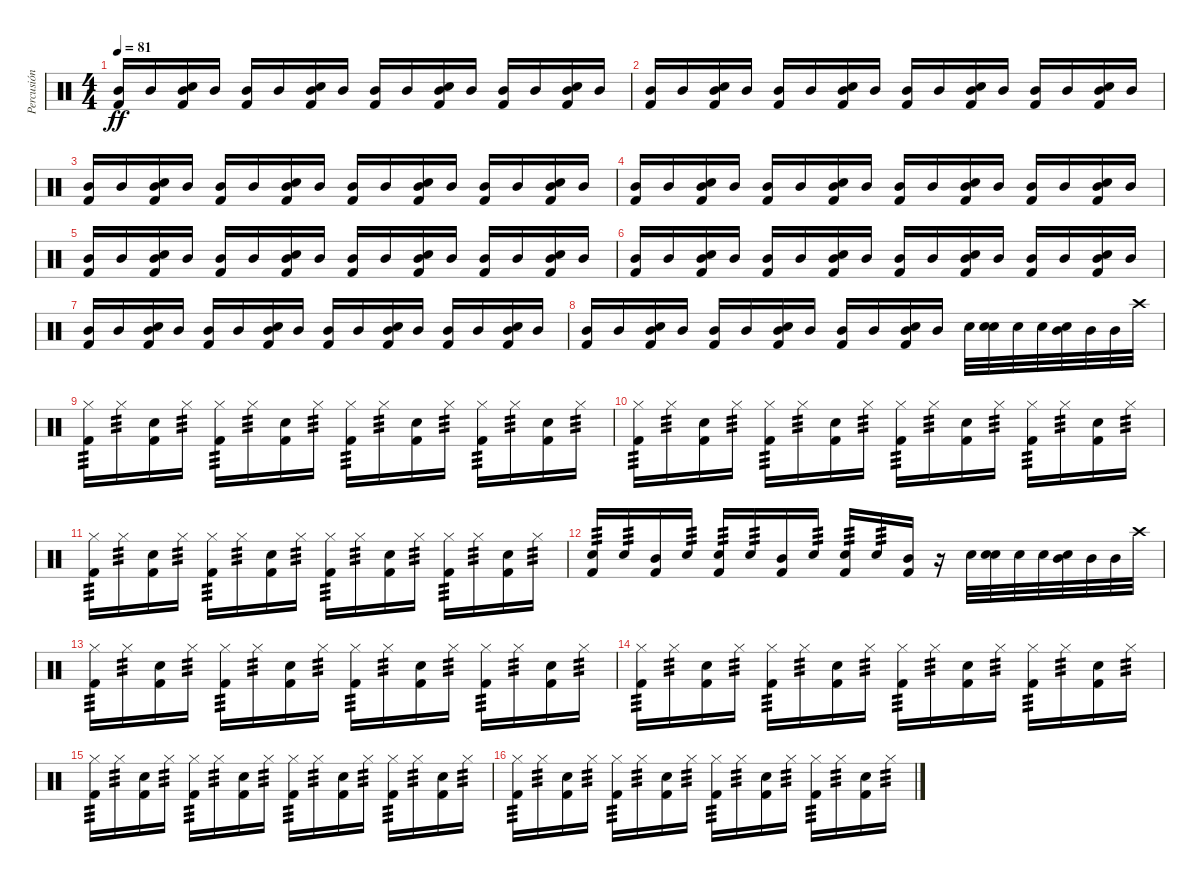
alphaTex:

\track ("Percusión" "Percusión") {instrument percussion}
\staff {score}
\articulation defaults
\ts (4 4)
\tempo 81
\clef neutral
\ks c
("Kick (hit) 2" "Mid Tom (hit)").16{dy ff} "Mid Tom (hit)".16 ("Kick (hit) 2" "Electric Snare (hit)" "Mid Tom (hit)").16 "Mid Tom (hit)".16 ("Kick (hit) 2" "Mid Tom (hit)").16 "Mid Tom (hit)".16 ("Kick (hit) 2" "Electric Snare (hit)" "Mid Tom (hit)").16 "Mid Tom (hit)".16 ("Kick (hit) 2" "Mid Tom (hit)").16 "Mid Tom (hit)".16 ("Kick (hit) 2" "Electric Snare (hit)" "Mid Tom (hit)").16 "Mid Tom (hit)".16 ("Kick (hit) 2" "Mid Tom (hit)").16 "Mid Tom (hit)".16 ("Kick (hit) 2" "Electric Snare (hit)" "Mid Tom (hit)").16 "Mid Tom (hit)".16 |
("Kick (hit) 2" "Mid Tom (hit)").16 "Mid Tom (hit)".16 ("Kick (hit) 2" "Electric Snare (hit)" "Mid Tom (hit)").16 "Mid Tom (hit)".16 ("Kick (hit) 2" "Mid Tom (hit)").16 "Mid Tom (hit)".16 ("Kick (hit) 2" "Electric Snare (hit)" "Mid Tom (hit)").16 "Mid Tom (hit)".16 ("Kick (hit) 2" "Mid Tom (hit)").16 "Mid Tom (hit)".16 ("Kick (hit) 2" "Electric Snare (hit)" "Mid Tom (hit)").16 "Mid Tom (hit)".16 ("Kick (hit) 2" "Mid Tom (hit)").16 "Mid Tom (hit)".16 ("Kick (hit) 2" "Electric Snare (hit)" "Mid Tom (hit)").16 "Mid Tom (hit)".16 |
("Kick (hit) 2" "Mid Tom (hit)").16 "Mid Tom (hit)".16 ("Kick (hit) 2" "Electric Snare (hit)" "Mid Tom (hit)").16 "Mid Tom (hit)".16 ("Kick (hit) 2" "Mid Tom (hit)").16 "Mid Tom (hit)".16 ("Kick (hit) 2" "Electric Snare (hit)" "Mid Tom (hit)").16 "Mid Tom (hit)".16 ("Kick (hit) 2" "Mid Tom (hit)").16 "Mid Tom (hit)".16 ("Kick (hit) 2" "Electric Snare (hit)" "Mid Tom (hit)").16 "Mid Tom (hit)".16 ("Kick (hit) 2" "Mid Tom (hit)").16 "Mid Tom (hit)".16 ("Kick (hit) 2" "Electric Snare (hit)" "Mid Tom (hit)").16 "Mid Tom (hit)".16 |
("Kick (hit) 2" "Mid Tom (hit)").16 "Mid Tom (hit)".16 ("Kick (hit) 2" "Electric Snare (hit)" "Mid Tom (hit)").16 "Mid Tom (hit)".16 ("Kick (hit) 2" "Mid Tom (hit)").16 "Mid Tom (hit)".16 ("Kick (hit) 2" "Electric Snare (hit)" "Mid Tom (hit)").16 "Mid Tom (hit)".16 ("Kick (hit) 2" "Mid Tom (hit)").16 "Mid Tom (hit)".16 ("Kick (hit) 2" "Electric Snare (hit)" "Mid Tom (hit)").16 "Mid Tom (hit)".16 ("Kick (hit) 2" "Mid Tom (hit)").16 "Mid Tom (hit)".16 ("Kick (hit) 2" "Electric Snare (hit)" "Mid Tom (hit)").16 "Mid Tom (hit)".16 |
("Kick (hit) 2" "Mid Tom (hit)").16 "Mid Tom (hit)".16 ("Kick (hit) 2" "Electric Snare (hit)" "Mid Tom (hit)").16 "Mid Tom (hit)".16 ("Kick (hit) 2" "Mid Tom (hit)").16 "Mid Tom (hit)".16 ("Kick (hit) 2" "Electric Snare (hit)" "Mid Tom (hit)").16 "Mid Tom (hit)".16 ("Kick (hit) 2" "Mid Tom (hit)").16 "Mid Tom (hit)".16 ("Kick (hit) 2" "Electric Snare (hit)" "Mid Tom (hit)").16 "Mid Tom (hit)".16 ("Kick (hit) 2" "Mid Tom (hit)").16 "Mid Tom (hit)".16 ("Kick (hit) 2" "Electric Snare (hit)" "Mid Tom (hit)").16 "Mid Tom (hit)".16 |
("Kick (hit) 2" "Mid Tom (hit)").16 "Mid Tom (hit)".16 ("Kick (hit) 2" "Electric Snare (hit)" "Mid Tom (hit)").16 "Mid Tom (hit)".16 ("Kick (hit) 2" "Mid Tom (hit)").16 "Mid Tom (hit)".16 ("Kick (hit) 2" "Electric Snare (hit)" "Mid Tom (hit)").16 "Mid Tom (hit)".16 ("Kick (hit) 2" "Mid Tom (hit)").16 "Mid Tom (hit)".16 ("Kick (hit) 2" "Electric Snare (hit)" "Mid Tom (hit)").16 "Mid Tom (hit)".16 ("Kick (hit) 2" "Mid Tom (hit)").16 "Mid Tom (hit)".16 ("Kick (hit) 2" "Electric Snare (hit)" "Mid Tom (hit)").16 "Mid Tom (hit)".16 |
("Kick (hit) 2" "Mid Tom (hit)").16 "Mid Tom (hit)".16 ("Kick (hit) 2" "Electric Snare (hit)" "Mid Tom (hit)").16 "Mid Tom (hit)".16 ("Kick (hit) 2" "Mid Tom (hit)").16 "Mid Tom (hit)".16 ("Kick (hit) 2" "Electric Snare (hit)" "Mid Tom (hit)").16 "Mid Tom (hit)".16 ("Kick (hit) 2" "Mid Tom (hit)").16 "Mid Tom (hit)".16 ("Kick (hit) 2" "Electric Snare (hit)" "Mid Tom (hit)").16 "Mid Tom (hit)".16 ("Kick (hit) 2" "Mid Tom (hit)").16 "Mid Tom (hit)".16 ("Kick (hit) 2" "Electric Snare (hit)" "Mid Tom (hit)").16 "Mid Tom (hit)".16 |
("Kick (hit) 2" "Mid Tom (hit)").16 "Mid Tom (hit)".16 ("Kick (hit) 2" "Electric Snare (hit)" "Mid Tom (hit)").16 "Mid Tom (hit)".16 ("Kick (hit) 2" "Mid Tom (hit)").16 "Mid Tom (hit)".16 ("Kick (hit) 2" "Electric Snare (hit)" "Mid Tom (hit)").16 "Mid Tom (hit)".16 ("Kick (hit) 2" "Mid Tom (hit)").16 "Mid Tom (hit)".16 ("Kick (hit) 2" "Electric Snare (hit)" "Mid Tom (hit)").16 "Mid Tom (hit)".16 "Electric Snare (hit)".32 ("Snare (hit) 2" "Electric Snare (hit)").32 "Electric Snare (hit)".32 "Electric Snare (hit)".32 ("Snare (hit) 2" "Mid Tom (hit)").32 "Mid Tom (hit)".32 "Mid Tom (hit)".32 "Crash high (hit)".32 |
("Kick (hit) 2" "Hi-Hat (closed)").16{tp 3} "Hi-Hat (closed)".16{tp 3} ("Kick (hit) 2" "Electric Snare (hit)").16 "Hi-Hat (closed)".16{tp 3} ("Kick (hit) 2" "Hi-Hat (closed)").16{tp 3} "Hi-Hat (closed)".16{tp 3} ("Kick (hit) 2" "Electric Snare (hit)").16 "Hi-Hat (closed)".16{tp 3} ("Kick (hit) 2" "Hi-Hat (closed)").16{tp 3} "Hi-Hat (closed)".16{tp 3} ("Kick (hit) 2" "Electric Snare (hit)").16 "Hi-Hat (closed)".16{tp 3} ("Kick (hit) 2" "Hi-Hat (closed)").16{tp 3} "Hi-Hat (closed)".16{tp 3} ("Kick (hit) 2" "Electric Snare (hit)").16 "Hi-Hat (closed)".16{tp 3} |
("Kick (hit) 2" "Hi-Hat (closed)").16{tp 3} "Hi-Hat (closed)".16{tp 3} ("Kick (hit) 2" "Electric Snare (hit)").16 "Hi-Hat (closed)".16{tp 3} ("Kick (hit) 2" "Hi-Hat (closed)").16{tp 3} "Hi-Hat (closed)".16{tp 3} ("Kick (hit) 2" "Electric Snare (hit)").16 "Hi-Hat (closed)".16{tp 3} ("Kick (hit) 2" "Hi-Hat (closed)").16{tp 3} "Hi-Hat (closed)".16{tp 3} ("Kick (hit) 2" "Electric Snare (hit)").16 "Hi-Hat (closed)".16{tp 3} ("Kick (hit) 2" "Hi-Hat (closed)").16{tp 3} "Hi-Hat (closed)".16{tp 3} ("Kick (hit) 2" "Electric Snare (hit)").16 "Hi-Hat (closed)".16{tp 3} |
("Kick (hit) 2" "Hi-Hat (closed)").16{tp 3} "Hi-Hat (closed)".16{tp 3} ("Kick (hit) 2" "Electric Snare (hit)").16 "Hi-Hat (closed)".16{tp 3} ("Kick (hit) 2" "Hi-Hat (closed)").16{tp 3} "Hi-Hat (closed)".16{tp 3} ("Kick (hit) 2" "Electric Snare (hit)").16 "Hi-Hat (closed)".16{tp 3} ("Kick (hit) 2" "Hi-Hat (closed)").16{tp 3} "Hi-Hat (closed)".16{tp 3} ("Kick (hit) 2" "Electric Snare (hit)").16 "Hi-Hat (closed)".16{tp 3} ("Kick (hit) 2" "Hi-Hat (closed)").16{tp 3} "Hi-Hat (closed)".16{tp 3} ("Kick (hit) 2" "Electric Snare (hit)").16 "Hi-Hat (closed)".16{tp 3} |
("Kick (hit) 2" "Electric Snare (hit)").16{tp 3} "Electric Snare (hit)".16{tp 3} ("Kick (hit) 2" "Mid Tom (hit)").16 "Electric Snare (hit)".16{tp 3} ("Kick (hit) 2" "Electric Snare (hit)").16{tp 3} "Electric Snare (hit)".16{tp 3} ("Kick (hit) 2" "Mid Tom (hit)").16 "Electric Snare (hit)".16{tp 3} ("Kick (hit) 2" "Electric Snare (hit)").16{tp 3} "Electric Snare (hit)".16{tp 3} ("Kick (hit) 2" "Mid Tom (hit)").16 r.16 "Electric Snare (hit)".32 ("Snare (hit) 2" "Electric Snare (hit)").32 "Electric Snare (hit)".32 "Electric Snare (hit)".32 ("Snare (hit) 2" "Mid Tom (hit)").32 "Mid Tom (hit)".32 "Mid Tom (hit)".32 "Crash high (hit)".32 |
("Kick (hit) 2" "Hi-Hat (closed)").16{tp 3} "Hi-Hat (closed)".16{tp 3} ("Kick (hit) 2" "Electric Snare (hit)").16 "Hi-Hat (closed)".16{tp 3} ("Kick (hit) 2" "Hi-Hat (closed)").16{tp 3} "Hi-Hat (closed)".16{tp 3} ("Kick (hit) 2" "Electric Snare (hit)").16 "Hi-Hat (closed)".16{tp 3} ("Kick (hit) 2" "Hi-Hat (closed)").16{tp 3} "Hi-Hat (closed)".16{tp 3} ("Kick (hit) 2" "Electric Snare (hit)").16 "Hi-Hat (closed)".16{tp 3} ("Kick (hit) 2" "Hi-Hat (closed)").16{tp 3} "Hi-Hat (closed)".16{tp 3} ("Kick (hit) 2" "Electric Snare (hit)").16 "Hi-Hat (closed)".16{tp 3} |
("Kick (hit) 2" "Hi-Hat (closed)").16{tp 3} "Hi-Hat (closed)".16{tp 3} ("Kick (hit) 2" "Electric Snare (hit)").16 "Hi-Hat (closed)".16{tp 3} ("Kick (hit) 2" "Hi-Hat (closed)").16{tp 3} "Hi-Hat (closed)".16{tp 3} ("Kick (hit) 2" "Electric Snare (hit)").16 "Hi-Hat (closed)".16{tp 3} ("Kick (hit) 2" "Hi-Hat (closed)").16{tp 3} "Hi-Hat (closed)".16{tp 3} ("Kick (hit) 2" "Electric Snare (hit)").16 "Hi-Hat (closed)".16{tp 3} ("Kick (hit) 2" "Hi-Hat (closed)").16{tp 3} "Hi-Hat (closed)".16{tp 3} ("Kick (hit) 2" "Electric Snare (hit)").16 "Hi-Hat (closed)".16{tp 3} |
("Kick (hit) 2" "Hi-Hat (closed)").16{tp 3} "Hi-Hat (closed)".16{tp 3} ("Kick (hit) 2" "Electric Snare (hit)").16 "Hi-Hat (closed)".16{tp 3} ("Kick (hit) 2" "Hi-Hat (closed)").16{tp 3} "Hi-Hat (closed)".16{tp 3} ("Kick (hit) 2" "Electric Snare (hit)").16 "Hi-Hat (closed)".16{tp 3} ("Kick (hit) 2" "Hi-Hat (closed)").16{tp 3} "Hi-Hat (closed)".16{tp 3} ("Kick (hit) 2" "Electric Snare (hit)").16 "Hi-Hat (closed)".16{tp 3} ("Kick (hit) 2" "Hi-Hat (closed)").16{tp 3} "Hi-Hat (closed)".16{tp 3} ("Kick (hit) 2" "Electric Snare (hit)").16 "Hi-Hat (closed)".16{tp 3} |
("Kick (hit) 2" "Hi-Hat (closed)").16{tp 3} "Hi-Hat (closed)".16{tp 3} ("Kick (hit) 2" "Electric Snare (hit)").16 "Hi-Hat (closed)".16{tp 3} ("Kick (hit) 2" "Hi-Hat (closed)").16{tp 3} "Hi-Hat (closed)".16{tp 3} ("Kick (hit) 2" "Electric Snare (hit)").16 "Hi-Hat (closed)".16{tp 3} ("Kick (hit) 2" "Hi-Hat (closed)").16{tp 3} "Hi-Hat (closed)".16{tp 3} ("Kick (hit) 2" "Electric Snare (hit)").16 "Hi-Hat (closed)".16{tp 3} ("Kick (hit) 2" "Hi-Hat (closed)").16{tp 3} "Hi-Hat (closed)".16{tp 3} ("Kick (hit) 2" "Electric Snare (hit)").16 "Hi-Hat (closed)".16{tp 3}
